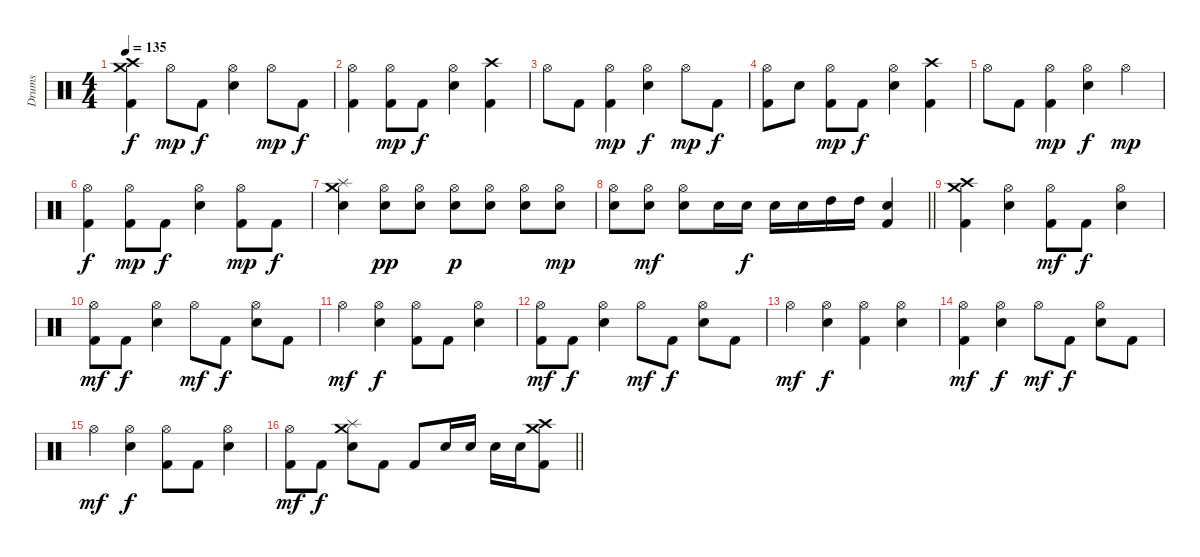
\track ("Drums" "Drums") {instrument percussion}
\staff {score}
\articulation defaults
\ts (4 4)
\tempo 135
\clef neutral
\ks c
("Crash high (hit)" "Crash medium (hit)" "Kick (hit) 2").4{dy f} "Hi-Hat (open)".8{dy mp} "Kick (hit) 2".8{dy f} ("Hi-Hat (open)" "Electric Snare (hit)").4 "Hi-Hat (open)".8{dy mp} "Kick (hit) 2".8{dy f} |
("Hi-Hat (open)" "Kick (hit) 2").4 ("Hi-Hat (open)" "Kick (hit) 2").8{dy mp} "Kick (hit) 2".8{dy f} ("Hi-Hat (open)" "Electric Snare (hit)").4 ("Crash high (hit)" "Kick (hit) 2").4 |
"Hi-Hat (open)".8 "Kick (hit) 2".8 ("Hi-Hat (open)" "Kick (hit) 2").4{dy mp} ("Hi-Hat (open)" "Electric Snare (hit)").4{dy f} "Hi-Hat (open)".8{dy mp} "Kick (hit) 2".8{dy f} |
("Hi-Hat (open)" "Kick (hit) 2").8 "Electric Snare (hit)".8 ("Hi-Hat (open)" "Kick (hit) 2").8{dy mp} "Kick (hit) 2".8{dy f} ("Hi-Hat (open)" "Electric Snare (hit)").4 ("Crash high (hit)" "Kick (hit) 2").4 |
"Hi-Hat (open)".8 "Kick (hit) 2".8 ("Hi-Hat (open)" "Kick (hit) 2").4{dy mp} ("Hi-Hat (open)" "Electric Snare (hit)").4{dy f} "Hi-Hat (open)".4{dy mp} |
("Hi-Hat (open)" "Kick (hit) 2").4{dy f} ("Hi-Hat (open)" "Kick (hit) 2").8{dy mp} "Kick (hit) 2".8{dy f} ("Hi-Hat (open)" "Electric Snare (hit)").4 ("Hi-Hat (open)" "Kick (hit) 2").8{dy mp} "Kick (hit) 2".8{dy f} |
("Crash medium (hit)" "Splash (hit)" "Electric Snare (hit)").4 ("Hi-Hat (open)" "Electric Snare (hit)").8{dy pp} ("Hi-Hat (open)" "Electric Snare (hit)").8 ("Hi-Hat (open)" "Electric Snare (hit)").8{dy p} ("Hi-Hat (open)" "Electric Snare (hit)").8 ("Hi-Hat (open)" "Electric Snare (hit)").8 ("Hi-Hat (open)" "Electric Snare (hit)").8{dy mp} |
\barLineRight lightlight
("Hi-Hat (open)" "Electric Snare (hit)").8 ("Hi-Hat (open)" "Electric Snare (hit)").8{dy mf} ("Hi-Hat (open)" "Electric Snare (hit)").8 "Electric Snare (hit)".16 "Electric Snare (hit)".16{dy f} "Electric Snare (hit)".16 "Electric Snare (hit)".16 "High Tom (hit)".16 "High Tom (hit)".16 ("Electric Snare (hit)" "Kick (hit) 2").4 |
("Crash high (hit)" "Crash medium (hit)" "Kick (hit) 2").4 ("Hi-Hat (open)" "Electric Snare (hit)").4 ("Hi-Hat (open)" "Kick (hit) 2").8{dy mf} "Kick (hit) 2".8{dy f} ("Hi-Hat (open)" "Electric Snare (hit)").4 |
("Hi-Hat (open)" "Kick (hit) 2").8{dy mf} "Kick (hit) 2".8{dy f} ("Hi-Hat (open)" "Electric Snare (hit)").4 "Hi-Hat (open)".8{dy mf} "Kick (hit) 2".8{dy f} ("Hi-Hat (open)" "Electric Snare (hit)").8 "Kick (hit) 2".8 |
"Hi-Hat (open)".4{dy mf} ("Hi-Hat (open)" "Electric Snare (hit)").4{dy f} ("Hi-Hat (open)" "Kick (hit) 2").8 "Kick (hit) 2".8 ("Hi-Hat (open)" "Electric Snare (hit)").4 |
("Hi-Hat (open)" "Kick (hit) 2").8{dy mf} "Kick (hit) 2".8{dy f} ("Hi-Hat (open)" "Electric Snare (hit)").4 "Hi-Hat (open)".8{dy mf} "Kick (hit) 2".8{dy f} ("Hi-Hat (open)" "Electric Snare (hit)").8 "Kick (hit) 2".8 |
"Hi-Hat (open)".4{dy mf} ("Hi-Hat (open)" "Electric Snare (hit)").4{dy f} ("Hi-Hat (open)" "Kick (hit) 2").4 ("Hi-Hat (open)" "Electric Snare (hit)").4 |
("Hi-Hat (open)" "Kick (hit) 2").4{dy mf} ("Hi-Hat (open)" "Electric Snare (hit)").4{dy f} "Hi-Hat (open)".8{dy mf} "Kick (hit) 2".8{dy f} ("Hi-Hat (open)" "Electric Snare (hit)").8 "Kick (hit) 2".8 |
"Hi-Hat (open)".4{dy mf} ("Hi-Hat (open)" "Electric Snare (hit)").4{dy f} ("Hi-Hat (open)" "Kick (hit) 2").8 "Kick (hit) 2".8 ("Hi-Hat (open)" "Electric Snare (hit)").4 |
\barLineRight lightlight
("Hi-Hat (open)" "Kick (hit) 2").8{dy mf} "Kick (hit) 2".8{dy f} ("Crash medium (hit)" "Splash (hit)" "Electric Snare (hit)").8 "Kick (hit) 2".8 "Kick (hit) 2".8 "Electric Snare (hit)".16 "Electric Snare (hit)".16 "Electric Snare (hit)".16 "Electric Snare (hit)".16 ("Crash high (hit)" "Crash medium (hit)" "Kick (hit) 2").8
